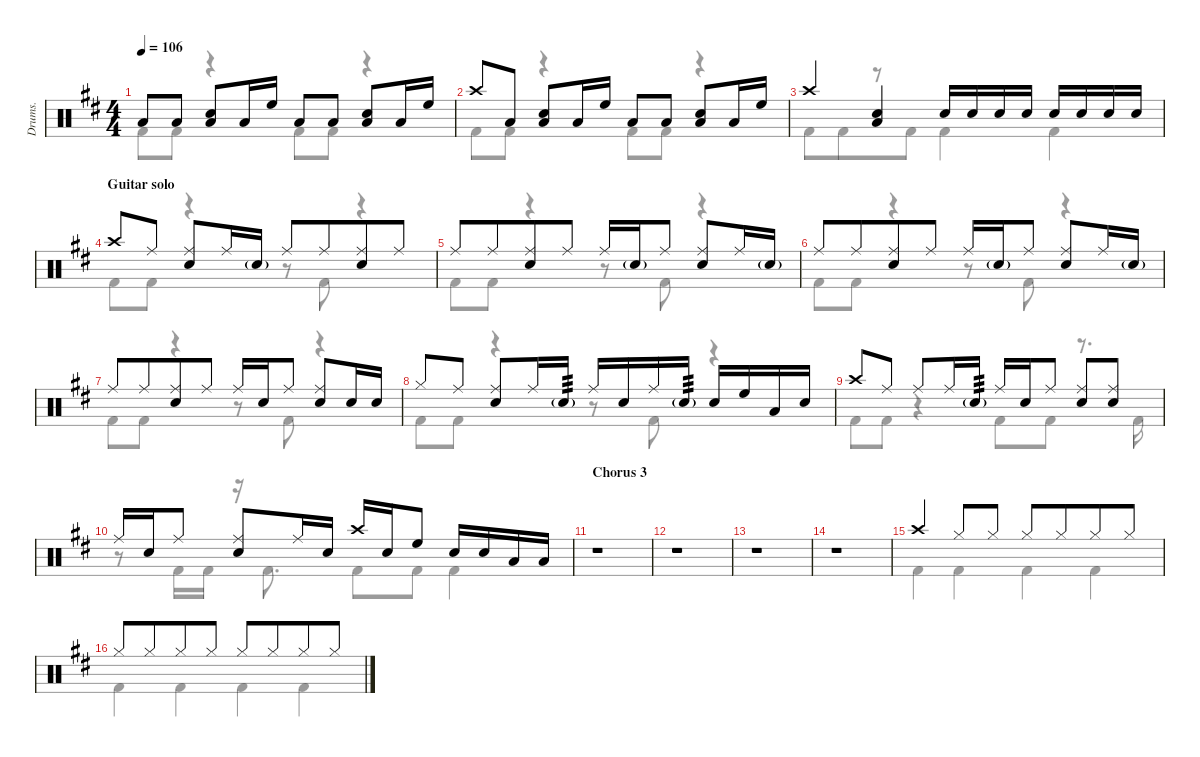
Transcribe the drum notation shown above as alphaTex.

\defaultSystemsLayout 4
\hideDynamics
\track ("Drumkit" "Drums.") {defaultSystemsLayout 4 instrument percussion}
\staff {score}
\articulation defaults
\voice
\ts (4 4)
\tempo 106
\clef neutral
\ks d "Low Tom (hit)"{acc forcenatural}.8{dy mf} "Low Tom (hit)"{acc forcenatural}.8
("Low Tom (hit)"{acc forcenatural} "Snare (hit) 2"{acc forcenatural}).8 "Low Tom (hit)"{acc forcenatural}.16 "High Floor Tom (hit)"{acc forcenatural}.16 "Low Tom (hit)"{acc forcenatural}.8 "Low Tom (hit)"{acc forcenatural}.8 ("Low Tom (hit)"{acc forcenatural} "Snare (hit) 2"{acc forcenatural}).8 "Low Tom (hit)"{acc forcenatural}.16 "High Floor Tom (hit)"{acc forcenatural}.16 |
"Crash high (hit)"{acc forcenatural}.8 "Low Tom (hit)"{acc forcenatural}.8 ("Low Tom (hit)"{acc forcenatural} "Snare (hit) 2"{acc forcenatural}).8 "Low Tom (hit)"{acc forcenatural}.16 "High Floor Tom (hit)"{acc forcenatural}.16 "Low Tom (hit)"{acc forcenatural}.8 "Low Tom (hit)"{acc forcenatural}.8 ("Low Tom (hit)"{acc forcenatural} "Snare (hit) 2"{acc forcenatural}).8 "Low Tom (hit)"{acc forcenatural}.16 "High Floor Tom (hit)"{acc forcenatural}.16 |
"Crash high (hit)"{acc forcenatural}.4 ("Snare (hit) 2"{acc forcenatural} "Low Tom (hit)"{acc forcenatural}).4 "Snare (hit) 2"{acc forcenatural}.16 "Snare (hit) 2"{acc forcenatural}.16 "Snare (hit) 2"{acc forcenatural}.16 "Snare (hit) 2"{acc forcenatural}.16 "Snare (hit) 2"{acc forcenatural}.16 "Snare (hit) 2"{acc forcenatural}.16 "Snare (hit) 2"{acc forcenatural}.16 "Snare (hit) 2"{acc forcenatural}.16 |
\section ("" "Guitar solo")
"Crash high (hit)"{acc forcenatural}.8 "Ride (middle)"{acc forcenatural}.8 ("Ride (middle)"{acc forcenatural} "Snare (hit) 2"{acc forcenatural}).8 "Ride (middle)"{acc forcenatural}.16 "Snare (hit) 2"{g acc forcenatural}.16 "Ride (middle)"{acc forcenatural}.8 "Ride (middle)"{acc forcenatural}.8{beam merge} ("Ride (middle)"{acc forcenatural} "Snare (hit) 2"{acc forcenatural}).8 "Ride (middle)"{acc forcenatural}.8 |
"Ride (middle)"{acc forcenatural}.8 "Ride (middle)"{acc forcenatural}.8{beam merge} ("Ride (middle)"{acc forcenatural} "Snare (hit) 2"{acc forcenatural}).8 "Ride (middle)"{acc forcenatural}.8 "Ride (middle)"{acc forcenatural}.16 "Snare (hit) 2"{g acc forcenatural}.16 "Ride (middle)"{acc forcenatural}.8 ("Ride (middle)"{acc forcenatural} "Snare (hit) 2"{acc forcenatural}).8 "Ride (middle)"{acc forcenatural}.16 "Snare (hit) 2"{g acc forcenatural}.16 |
"Ride (middle)"{acc forcenatural}.8 "Ride (middle)"{acc forcenatural}.8{beam merge} ("Ride (middle)"{acc forcenatural} "Snare (hit) 2"{acc forcenatural}).8 "Ride (middle)"{acc forcenatural}.8 "Ride (middle)"{acc forcenatural}.16 "Snare (hit) 2"{g acc forcenatural}.16 "Ride (middle)"{acc forcenatural}.8 ("Ride (middle)"{acc forcenatural} "Snare (hit) 2"{acc forcenatural}).8 "Ride (middle)"{acc forcenatural}.16 "Snare (hit) 2"{g acc forcenatural}.16 |
"Ride (middle)"{acc forcenatural}.8 "Ride (middle)"{acc forcenatural}.8{beam merge} ("Ride (middle)"{acc forcenatural} "Snare (hit) 2"{acc forcenatural}).8 "Ride (middle)"{acc forcenatural}.8 "Ride (middle)"{acc forcenatural}.16 "Snare (hit) 2"{acc forcenatural}.16 "Ride (middle)"{acc forcenatural}.8 ("Ride (middle)"{acc forcenatural} "Snare (hit) 2"{acc forcenatural}).8 "Snare (hit) 2"{acc forcenatural}.16 "Snare (hit) 2"{acc forcenatural}.16 |
"Hi-Hat (closed)"{acc forcenatural}.8 "Ride (middle)"{acc forcenatural}.8 ("Ride (middle)"{acc forcenatural} "Snare (hit) 2"{acc forcenatural}).8 "Ride (middle)"{acc forcenatural}.16 "Snare (hit) 2"{g acc forcenatural}.16{tp 3} "Ride (middle)"{acc forcenatural}.16 "Snare (hit) 2"{acc forcenatural}.16 "Ride (middle)"{acc forcenatural}.16 "Snare (hit) 2"{g acc forcenatural}.16{tp 3} "Snare (hit) 2"{acc forcenatural}.16 "High Floor Tom (hit)"{acc forcenatural}.16 "Low Tom (hit)"{acc forcenatural}.16 "Snare (hit) 2"{acc forcenatural}.16 |
"Crash high (hit)"{acc forcenatural}.8 "Ride (middle)"{acc forcenatural}.8 "Ride (middle)"{acc forcenatural}.8 "Ride (middle)"{acc forcenatural}.16 "Snare (hit) 2"{g acc forcenatural}.16{tp 3} "Ride (middle)"{acc forcenatural}.16 "Snare (hit) 2"{acc forcenatural}.16 "Ride (middle)"{acc forcenatural}.8 ("Ride (middle)"{acc forcenatural} "Snare (hit) 2"{acc forcenatural}).8 ("Ride (middle)"{acc forcenatural} "Snare (hit) 2"{acc forcenatural}).8 |
"Ride (middle)"{acc forcenatural}.16 "Snare (hit) 2"{acc forcenatural}.16 "Ride (middle)"{acc forcenatural}.8 ("Ride (middle)"{acc forcenatural} "Snare (hit) 2"{acc forcenatural}).8 "Ride (middle)"{acc forcenatural}.16 "Snare (hit) 2"{acc forcenatural}.16 "Crash high (hit)"{acc forcenatural}.16 "Snare (hit) 2"{acc forcenatural}.16 "High Floor Tom (hit)"{acc forcenatural}.8 "Snare (hit) 2"{acc forcenatural}.16 "Snare (hit) 2"{acc forcenatural}.16 "Low Tom (hit)"{acc forcenatural}.16 "Low Tom (hit)"{acc forcenatural}.16 |
\section ("" "Chorus 3")
r.1 |
r.1 |
r.1 |
r.1 |
"Crash high (hit)"{acc forcenatural}.4 "Hi-Hat (closed)"{acc forcenatural}.8 "Hi-Hat (closed)"{acc forcenatural}.8 "Hi-Hat (closed)"{acc forcenatural}.8 "Hi-Hat (closed)"{acc forcenatural}.8{beam merge} "Hi-Hat (closed)"{acc forcenatural}.8 "Hi-Hat (closed)"{acc forcenatural}.8 |
"Hi-Hat (closed)"{acc forcenatural}.8 "Hi-Hat (closed)"{acc forcenatural}.8{beam merge} "Hi-Hat (closed)"{acc forcenatural}.8 "Hi-Hat (closed)"{acc forcenatural}.8 "Hi-Hat (closed)"{acc forcenatural}.8 "Hi-Hat (closed)"{acc forcenatural}.8{beam merge} "Hi-Hat (closed)"{acc forcenatural}.8 "Hi-Hat (closed)"{acc forcenatural}.8
\voice
\clef neutral
\ottava regular
\simile none
\ks d "Kick (hit) 2"{acc forcenatural}.8{dy mf} "Kick (hit) 2"{acc forcenatural}.8
r.4 "Kick (hit) 2"{acc forcenatural}.8 "Kick (hit) 2"{acc forcenatural}.8 r.4 |
"Kick (hit) 2"{acc forcenatural}.8 "Kick (hit) 2"{acc forcenatural}.8 r.4 "Kick (hit) 2"{acc forcenatural}.8 "Kick (hit) 2"{acc forcenatural}.8 r.4 |
"Kick (hit) 2"{acc forcenatural}.8 "Kick (hit) 2"{acc forcenatural}.8{beam merge} r.8{beam merge} "Kick (hit) 2"{acc forcenatural}.8 "Kick (hit) 2"{acc forcenatural}.4 "Kick (hit) 2"{acc forcenatural}.4 |
"Kick (hit) 2"{acc forcenatural}.8 "Kick (hit) 2"{acc forcenatural}.8 r.4 r.8 "Kick (hit) 2"{acc forcenatural}.8 r.4 |
"Kick (hit) 2"{acc forcenatural}.8 "Kick (hit) 2"{acc forcenatural}.8 r.4 r.8 "Kick (hit) 2"{acc forcenatural}.8 r.4 |
"Kick (hit) 2"{acc forcenatural}.8 "Kick (hit) 2"{acc forcenatural}.8 r.4 r.8 "Kick (hit) 2"{acc forcenatural}.8 r.4 |
"Kick (hit) 2"{acc forcenatural}.8 "Kick (hit) 2"{acc forcenatural}.8 r.4 r.8 "Kick (hit) 2"{acc forcenatural}.8 r.4 |
"Kick (hit) 2"{acc forcenatural}.8 "Kick (hit) 2"{acc forcenatural}.8 r.4 r.8 "Kick (hit) 2"{acc forcenatural}.8 r.4 |
"Kick (hit) 2"{acc forcenatural}.8 "Kick (hit) 2"{acc forcenatural}.8 r.4 "Kick (hit) 2"{acc forcenatural}.8 "Kick (hit) 2"{acc forcenatural}.8 r.8{d} "Kick (hit) 2"{acc forcenatural}.16 |
r.8 "Kick (hit) 2"{acc forcenatural}.16 "Kick (hit) 2"{acc forcenatural}.16 r.16 "Kick (hit) 2"{acc forcenatural}.8{d} "Kick (hit) 2"{acc forcenatural}.8 "Kick (hit) 2"{acc forcenatural}.8 "Kick (hit) 2"{acc forcenatural}.4 |
r.1 |
r.1 |
r.1 |
r.1 |
"Kick (hit) 2"{acc forcenatural}.4 "Kick (hit) 2"{acc forcenatural}.4 "Kick (hit) 2"{acc forcenatural}.4 "Kick (hit) 2"{acc forcenatural}.4 |
"Kick (hit) 2"{acc forcenatural}.4 "Kick (hit) 2"{acc forcenatural}.4 "Kick (hit) 2"{acc forcenatural}.4 "Kick (hit) 2"{acc forcenatural}.4
